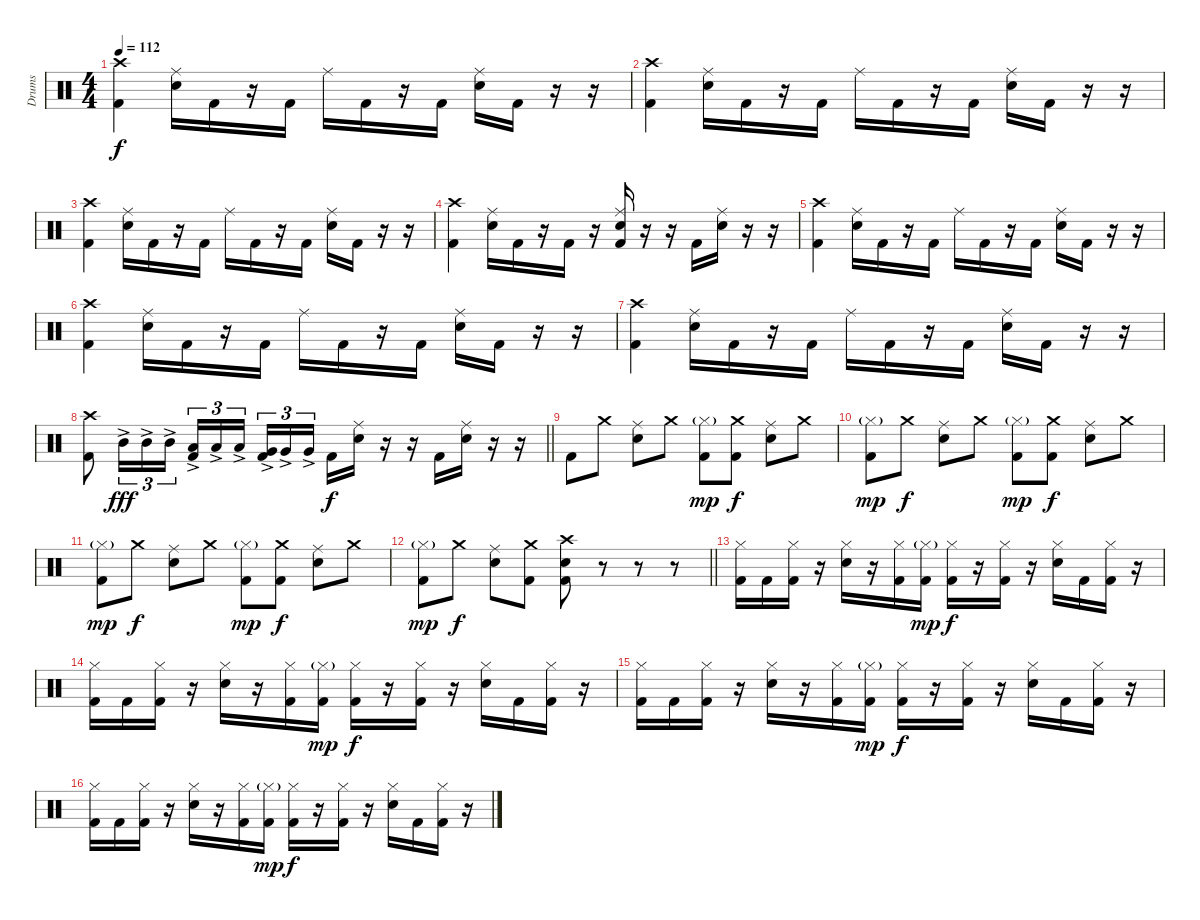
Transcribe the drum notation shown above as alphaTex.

\track ("Drums" "Drums") {instrument percussion}
\staff {score}
\articulation defaults
\ts (4 4)
\tempo 112
\clef neutral
\ks c
("Crash high (hit)" "Kick (hit) 2").4{dy f} ("Ride (middle)" "Electric Snare (hit)").16 "Kick (hit) 2".16 r.16 "Kick (hit) 2".16 "Ride (middle)".16 "Kick (hit) 2".16 r.16 "Kick (hit) 2".16 ("Ride (middle)" "Electric Snare (hit)").16 "Kick (hit) 2".16 r.16 r.16 |
("Crash high (hit)" "Kick (hit) 2").4 ("Ride (middle)" "Electric Snare (hit)").16 "Kick (hit) 2".16 r.16 "Kick (hit) 2".16 "Ride (middle)".16 "Kick (hit) 2".16 r.16 "Kick (hit) 2".16 ("Ride (middle)" "Electric Snare (hit)").16 "Kick (hit) 2".16 r.16 r.16 |
("Crash high (hit)" "Kick (hit) 2").4 ("Ride (middle)" "Electric Snare (hit)").16 "Kick (hit) 2".16 r.16 "Kick (hit) 2".16 "Ride (middle)".16 "Kick (hit) 2".16 r.16 "Kick (hit) 2".16 ("Ride (middle)" "Electric Snare (hit)").16 "Kick (hit) 2".16 r.16 r.16 |
("Crash high (hit)" "Kick (hit) 2").4 ("Ride (middle)" "Electric Snare (hit)").16 "Kick (hit) 2".16 r.16 "Kick (hit) 2".16 r.16 ("Ride (middle)" "Electric Snare (hit)" "Kick (hit) 2").16 r.16 r.16 "Kick (hit) 2".16 ("Ride (middle)" "Electric Snare (hit)").16 r.16 r.16 |
("Crash high (hit)" "Kick (hit) 2").4 ("Ride (middle)" "Electric Snare (hit)").16 "Kick (hit) 2".16 r.16 "Kick (hit) 2".16 "Ride (middle)".16 "Kick (hit) 2".16 r.16 "Kick (hit) 2".16 ("Ride (middle)" "Electric Snare (hit)").16 "Kick (hit) 2".16 r.16 r.16 |
("Crash high (hit)" "Kick (hit) 2").4 ("Ride (middle)" "Electric Snare (hit)").16 "Kick (hit) 2".16 r.16 "Kick (hit) 2".16 "Ride (middle)".16 "Kick (hit) 2".16 r.16 "Kick (hit) 2".16 ("Ride (middle)" "Electric Snare (hit)").16 "Kick (hit) 2".16 r.16 r.16 |
("Crash high (hit)" "Kick (hit) 2").4 ("Ride (middle)" "Electric Snare (hit)").16 "Kick (hit) 2".16 r.16 "Kick (hit) 2".16 "Ride (middle)".16 "Kick (hit) 2".16 r.16 "Kick (hit) 2".16 ("Ride (middle)" "Electric Snare (hit)").16 "Kick (hit) 2".16 r.16 r.16 |
\barLineRight lightlight
("Crash high (hit)" "Kick (hit) 2").8 "Mid Tom (hit)"{ac}.16{tu (3 2) dy fff} "Mid Tom (hit)"{ac}.16{tu (3 2)} "Mid Tom (hit)"{ac}.16{tu (3 2)} ("Low Tom (hit)"{ac} "Kick (hit) 2").16{tu (3 2)} "Low Tom (hit)"{ac}.16{tu (3 2)} "Low Tom (hit)"{ac}.16{tu (3 2) beam splitsecondary} ("Very Low Tom (hit)"{ac} "Kick (hit) 2").16{tu (3 2)} "Very Low Tom (hit)"{ac}.16{tu (3 2)} "Very Low Tom (hit)"{ac}.16{tu (3 2)} "Kick (hit) 2".16{dy f} ("Ride (middle)" "Electric Snare (hit)").16 r.16 r.16 "Kick (hit) 2".16 ("Ride (middle)" "Electric Snare (hit)").16 r.16 r.16 |
"Kick (hit) 2".8 "Crash medium (hit)".8 ("Ride (middle)" "Electric Snare (hit)").8 "Crash medium (hit)".8 ("Hi-Hat (closed)"{g} "Kick (hit) 2").8{dy mp} ("Crash medium (hit)" "Kick (hit) 2").8{dy f} ("Ride (middle)" "Electric Snare (hit)").8 "Crash medium (hit)".8 |
("Hi-Hat (closed)"{g} "Kick (hit) 2").8{dy mp} "Crash medium (hit)".8{dy f} ("Ride (middle)" "Electric Snare (hit)").8 "Crash medium (hit)".8 ("Hi-Hat (closed)"{g} "Kick (hit) 2").8{dy mp} ("Crash medium (hit)" "Kick (hit) 2").8{dy f} ("Ride (middle)" "Electric Snare (hit)").8 "Crash medium (hit)".8 |
("Hi-Hat (closed)"{g} "Kick (hit) 2").8{dy mp} "Crash medium (hit)".8{dy f} ("Ride (middle)" "Electric Snare (hit)").8 "Crash medium (hit)".8 ("Hi-Hat (closed)"{g} "Kick (hit) 2").8{dy mp} ("Crash medium (hit)" "Kick (hit) 2").8{dy f} ("Ride (middle)" "Electric Snare (hit)").8 "Crash medium (hit)".8 |
\barLineRight lightlight
("Hi-Hat (closed)"{g} "Kick (hit) 2").8{dy mp} "Crash medium (hit)".8{dy f} ("Ride (middle)" "Electric Snare (hit)").8 ("Crash medium (hit)" "Kick (hit) 2").8 ("Crash high (hit)" "Electric Snare (hit)" "Kick (hit) 2").8 r.8 r.8 r.8 |
("Hi-Hat (closed)" "Kick (hit) 2").16 "Kick (hit) 2".16 ("Hi-Hat (closed)" "Kick (hit) 2").16 r.16 ("Hi-Hat (closed)" "Electric Snare (hit)").16 r.16 ("Hi-Hat (closed)" "Kick (hit) 2").16 ("Hi-Hat (closed)"{g} "Kick (hit) 2").16{dy mp} ("Hi-Hat (closed)" "Kick (hit) 2").16{dy f} r.16 ("Hi-Hat (closed)" "Kick (hit) 2").16 r.16 ("Hi-Hat (closed)" "Electric Snare (hit)").16 "Kick (hit) 2".16 ("Hi-Hat (closed)" "Kick (hit) 2").16 r.16 |
("Hi-Hat (closed)" "Kick (hit) 2").16 "Kick (hit) 2".16 ("Hi-Hat (closed)" "Kick (hit) 2").16 r.16 ("Hi-Hat (closed)" "Electric Snare (hit)").16 r.16 ("Hi-Hat (closed)" "Kick (hit) 2").16 ("Hi-Hat (closed)"{g} "Kick (hit) 2").16{dy mp} ("Hi-Hat (closed)" "Kick (hit) 2").16{dy f} r.16 ("Hi-Hat (closed)" "Kick (hit) 2").16 r.16 ("Hi-Hat (closed)" "Electric Snare (hit)").16 "Kick (hit) 2".16 ("Hi-Hat (closed)" "Kick (hit) 2").16 r.16 |
("Hi-Hat (closed)" "Kick (hit) 2").16 "Kick (hit) 2".16 ("Hi-Hat (closed)" "Kick (hit) 2").16 r.16 ("Hi-Hat (closed)" "Electric Snare (hit)").16 r.16 ("Hi-Hat (closed)" "Kick (hit) 2").16 ("Hi-Hat (closed)"{g} "Kick (hit) 2").16{dy mp} ("Hi-Hat (closed)" "Kick (hit) 2").16{dy f} r.16 ("Hi-Hat (closed)" "Kick (hit) 2").16 r.16 ("Hi-Hat (closed)" "Electric Snare (hit)").16 "Kick (hit) 2".16 ("Hi-Hat (closed)" "Kick (hit) 2").16 r.16 |
("Hi-Hat (closed)" "Kick (hit) 2").16 "Kick (hit) 2".16 ("Hi-Hat (closed)" "Kick (hit) 2").16 r.16 ("Hi-Hat (closed)" "Electric Snare (hit)").16 r.16 ("Hi-Hat (closed)" "Kick (hit) 2").16 ("Hi-Hat (closed)"{g} "Kick (hit) 2").16{dy mp} ("Hi-Hat (closed)" "Kick (hit) 2").16{dy f} r.16 ("Hi-Hat (closed)" "Kick (hit) 2").16 r.16 ("Hi-Hat (closed)" "Electric Snare (hit)").16 "Kick (hit) 2".16 ("Hi-Hat (closed)" "Kick (hit) 2").16 r.16
